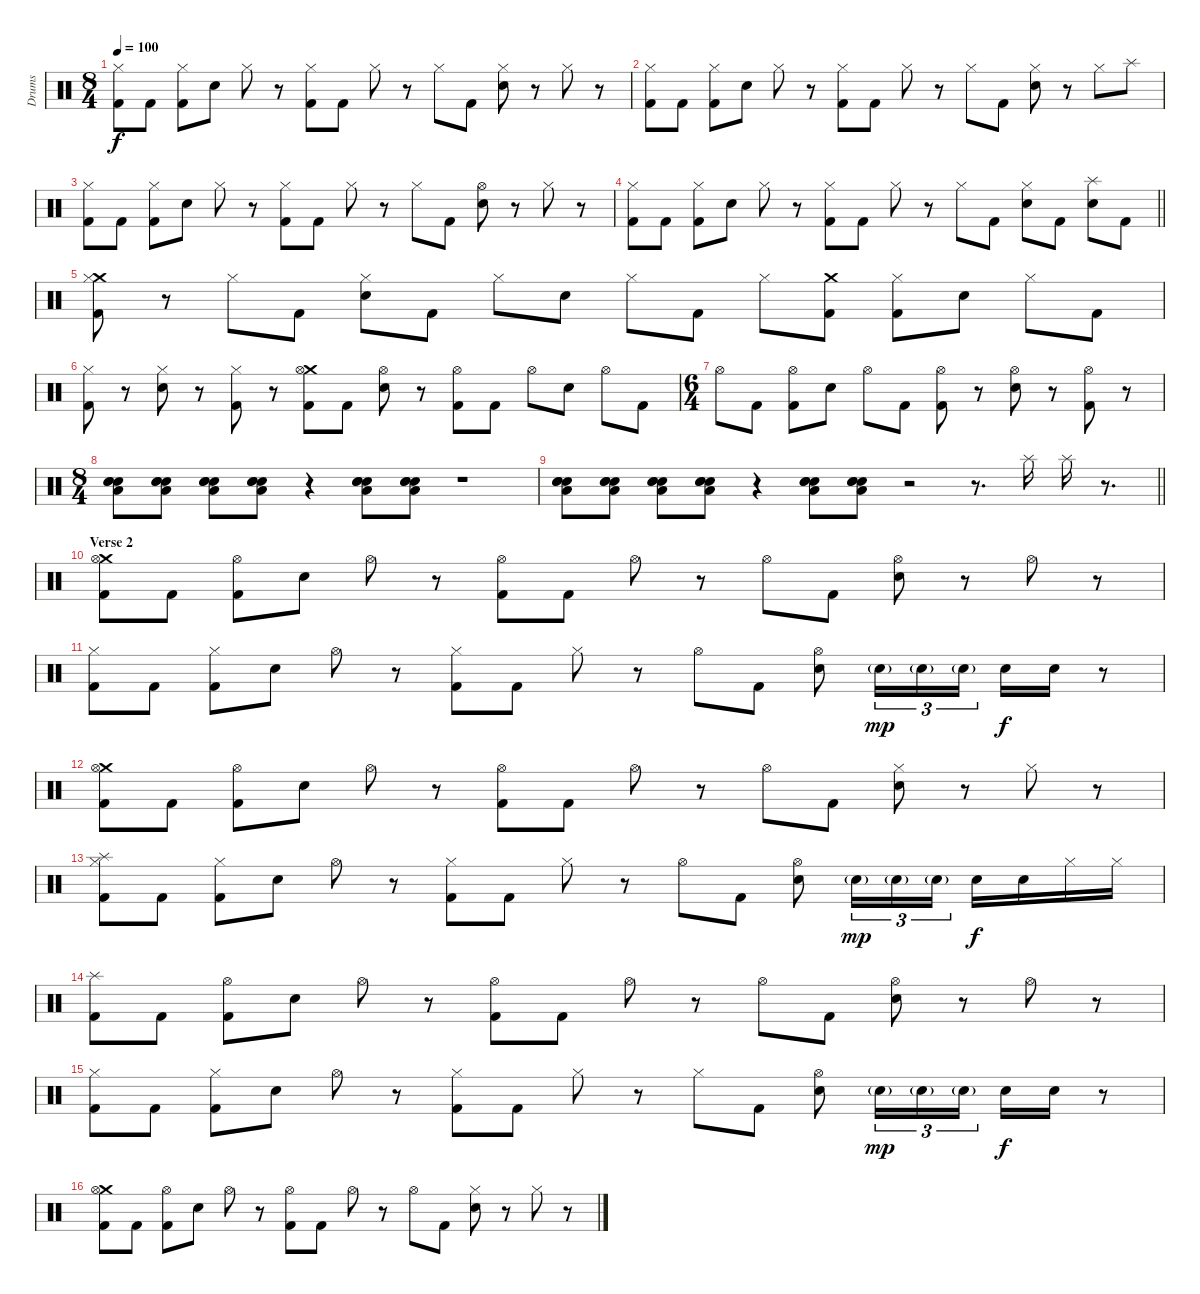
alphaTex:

\track ("Drums" "Drums") {instrument percussion}
\staff {score}
\articulation defaults
\ts (8 4)
\tempo 100
\clef neutral
\ks c
("Hi-Hat (closed)" "Kick (hit) 2").8{dy f} "Kick (hit) 2".8 ("Hi-Hat (closed)" "Kick (hit) 2").8 "Electric Snare (hit)".8 "Hi-Hat (closed)".8 r.8 ("Hi-Hat (closed)" "Kick (hit) 2").8 "Kick (hit) 2".8 "Hi-Hat (closed)".8 r.8 "Hi-Hat (closed)".8 "Kick (hit) 2".8 ("Hi-Hat (closed)" "Electric Snare (hit)").8 r.8 "Hi-Hat (closed)".8 r.8 |
("Hi-Hat (closed)" "Kick (hit) 2").8 "Kick (hit) 2".8 ("Hi-Hat (closed)" "Kick (hit) 2").8 "Electric Snare (hit)".8 "Hi-Hat (closed)".8 r.8 ("Hi-Hat (closed)" "Kick (hit) 2").8 "Kick (hit) 2".8 "Hi-Hat (closed)".8 r.8 "Hi-Hat (closed)".8 "Kick (hit) 2".8 ("Hi-Hat (closed)" "Electric Snare (hit)").8 r.8 "Hi-Hat (closed)".8 "Splash (hit)".8 |
("Hi-Hat (closed)" "Kick (hit) 2").8 "Kick (hit) 2".8 ("Hi-Hat (closed)" "Kick (hit) 2").8 "Electric Snare (hit)".8 "Hi-Hat (closed)".8 r.8 ("Hi-Hat (closed)" "Kick (hit) 2").8 "Kick (hit) 2".8 "Hi-Hat (closed)".8 r.8 "Hi-Hat (closed)".8 "Kick (hit) 2".8 ("Hi-Hat (open)" "Electric Snare (hit)").8 r.8 "Hi-Hat (closed)".8 r.8 |
\barLineRight lightlight
("Hi-Hat (closed)" "Kick (hit) 2").8 "Kick (hit) 2".8 ("Hi-Hat (closed)" "Kick (hit) 2").8 "Electric Snare (hit)".8 "Hi-Hat (closed)".8 r.8 ("Hi-Hat (closed)" "Kick (hit) 2").8 "Kick (hit) 2".8 "Hi-Hat (closed)".8 r.8 "Hi-Hat (closed)".8 "Kick (hit) 2".8 ("Hi-Hat (closed)" "Electric Snare (hit)").8 "Kick (hit) 2".8 ("Splash (hit)" "Electric Snare (hit)").8 "Kick (hit) 2".8 |
("Crash medium (hit)" "Hi-Hat (closed)" "Kick (hit) 2").8 r.8 "Hi-Hat (closed)".8 "Kick (hit) 2".8 ("Hi-Hat (closed)" "Electric Snare (hit)").8 "Kick (hit) 2".8 "Hi-Hat (closed)".8 "Electric Snare (hit)".8 "Hi-Hat (closed)".8 "Kick (hit) 2".8 "Hi-Hat (closed)".8 ("Crash medium (hit)" "Kick (hit) 2").8 ("Hi-Hat (closed)" "Kick (hit) 2").8 "Electric Snare (hit)".8 "Hi-Hat (closed)".8 "Kick (hit) 2".8 |
("Hi-Hat (closed)" "Kick (hit) 2").8 r.8 ("Hi-Hat (closed)" "Electric Snare (hit)").8 r.8 ("Hi-Hat (closed)" "Kick (hit) 2").8 r.8 ("Crash medium (hit)" "Hi-Hat (open)" "Kick (hit) 2").8 "Kick (hit) 2".8 ("Hi-Hat (open)" "Electric Snare (hit)").8 r.8 ("Hi-Hat (open)" "Kick (hit) 2").8 "Kick (hit) 2".8 "Hi-Hat (open)".8 "Electric Snare (hit)".8 "Hi-Hat (open)".8 "Kick (hit) 2".8 |
\ts (6 4)
"Hi-Hat (open)".8 "Kick (hit) 2".8 ("Hi-Hat (open)" "Kick (hit) 2").8 "Electric Snare (hit)".8 "Hi-Hat (open)".8 "Kick (hit) 2".8 ("Hi-Hat (open)" "Kick (hit) 2").8 r.8 ("Hi-Hat (open)" "Electric Snare (hit)").8 r.8 ("Hi-Hat (open)" "Kick (hit) 2").8 r.8 |
\ts (8 4)
("Snare (hit) 2" "Snare (hit) 2" "Snare (hit) 2" "Low Tom (hit)").8 ("Snare (hit) 2" "Snare (hit) 2" "Snare (hit) 2" "Low Tom (hit)").8 ("Snare (hit) 2" "Snare (hit) 2" "Snare (hit) 2" "Low Tom (hit)").8 ("Snare (hit) 2" "Snare (hit) 2" "Snare (hit) 2" "Low Tom (hit)").8 r.4 ("Snare (hit) 2" "Snare (hit) 2" "Snare (hit) 2" "Low Tom (hit)").8 ("Snare (hit) 2" "Snare (hit) 2" "Snare (hit) 2" "Low Tom (hit)").8 r.1 |
\barLineRight lightlight
("Snare (hit) 2" "Snare (hit) 2" "Snare (hit) 2" "Low Tom (hit)").8 ("Snare (hit) 2" "Snare (hit) 2" "Snare (hit) 2" "Low Tom (hit)").8 ("Snare (hit) 2" "Snare (hit) 2" "Snare (hit) 2" "Low Tom (hit)").8 ("Snare (hit) 2" "Snare (hit) 2" "Snare (hit) 2" "Low Tom (hit)").8 r.4 ("Snare (hit) 2" "Snare (hit) 2" "Snare (hit) 2" "Low Tom (hit)").8 ("Snare (hit) 2" "Snare (hit) 2" "Snare (hit) 2" "Low Tom (hit)").8 r.2 r.8{d} "Splash (hit)".16 "Splash (hit)".16 r.8{d} |
\section ("" "Verse 2")
("Crash medium (hit)" "Hi-Hat (open)" "Kick (hit) 2").8 "Kick (hit) 2".8 ("Hi-Hat (open)" "Kick (hit) 2").8 "Electric Snare (hit)".8 "Hi-Hat (open)".8 r.8 ("Hi-Hat (open)" "Kick (hit) 2").8 "Kick (hit) 2".8 "Hi-Hat (open)".8 r.8 "Hi-Hat (open)".8 "Kick (hit) 2".8 ("Hi-Hat (open)" "Electric Snare (hit)").8 r.8 "Hi-Hat (open)".8 r.8 |
("Hi-Hat (closed)" "Kick (hit) 2").8 "Kick (hit) 2".8 ("Hi-Hat (closed)" "Kick (hit) 2").8 "Electric Snare (hit)".8 "Hi-Hat (open)".8 r.8 ("Hi-Hat (closed)" "Kick (hit) 2").8 "Kick (hit) 2".8 "Hi-Hat (closed)".8 r.8 "Hi-Hat (open)".8 "Kick (hit) 2".8 ("Hi-Hat (open)" "Electric Snare (hit)").8 "Electric Snare (hit)"{g}.16{tu (3 2) dy mp} "Electric Snare (hit)"{g}.16{tu (3 2)} "Electric Snare (hit)"{g}.16{tu (3 2)} "Electric Snare (hit)".16{dy f} "Electric Snare (hit)".16 r.8 |
("Crash medium (hit)" "Hi-Hat (open)" "Kick (hit) 2").8 "Kick (hit) 2".8 ("Hi-Hat (open)" "Kick (hit) 2").8 "Electric Snare (hit)".8 "Hi-Hat (open)".8 r.8 ("Hi-Hat (open)" "Kick (hit) 2").8 "Kick (hit) 2".8 "Hi-Hat (open)".8 r.8 "Hi-Hat (open)".8 "Kick (hit) 2".8 ("Hi-Hat (closed)" "Electric Snare (hit)").8 r.8 "Hi-Hat (closed)".8 r.8 |
("Splash (hit)" "Hi-Hat (closed)" "Kick (hit) 2").8 "Kick (hit) 2".8 ("Hi-Hat (closed)" "Kick (hit) 2").8 "Electric Snare (hit)".8 "Hi-Hat (open)".8 r.8 ("Hi-Hat (closed)" "Kick (hit) 2").8 "Kick (hit) 2".8 "Hi-Hat (closed)".8 r.8 "Hi-Hat (open)".8 "Kick (hit) 2".8 ("Hi-Hat (open)" "Electric Snare (hit)").8 "Electric Snare (hit)"{g}.16{tu (3 2) dy mp} "Electric Snare (hit)"{g}.16{tu (3 2)} "Electric Snare (hit)"{g}.16{tu (3 2)} "Electric Snare (hit)".16{dy f} "Electric Snare (hit)".16 "Hi-Hat (closed)".16 "Hi-Hat (closed)".16 |
("Splash (hit)" "Kick (hit) 2").8 "Kick (hit) 2".8 ("Hi-Hat (open)" "Kick (hit) 2").8 "Electric Snare (hit)".8 "Hi-Hat (open)".8 r.8 ("Hi-Hat (open)" "Kick (hit) 2").8 "Kick (hit) 2".8 "Hi-Hat (open)".8 r.8 "Hi-Hat (open)".8 "Kick (hit) 2".8 ("Hi-Hat (open)" "Electric Snare (hit)").8 r.8 "Hi-Hat (open)".8 r.8 |
("Hi-Hat (closed)" "Kick (hit) 2").8 "Kick (hit) 2".8 ("Hi-Hat (closed)" "Kick (hit) 2").8 "Electric Snare (hit)".8 "Hi-Hat (open)".8 r.8 ("Hi-Hat (closed)" "Kick (hit) 2").8 "Kick (hit) 2".8 "Hi-Hat (closed)".8 r.8 "Hi-Hat (closed)".8 "Kick (hit) 2".8 ("Hi-Hat (open)" "Electric Snare (hit)").8 "Electric Snare (hit)"{g}.16{tu (3 2) dy mp} "Electric Snare (hit)"{g}.16{tu (3 2)} "Electric Snare (hit)"{g}.16{tu (3 2)} "Electric Snare (hit)".16{dy f} "Electric Snare (hit)".16 r.8 |
("Crash medium (hit)" "Hi-Hat (open)" "Kick (hit) 2").8 "Kick (hit) 2".8 ("Hi-Hat (open)" "Kick (hit) 2").8 "Electric Snare (hit)".8 "Hi-Hat (open)".8 r.8 ("Hi-Hat (open)" "Kick (hit) 2").8 "Kick (hit) 2".8 "Hi-Hat (open)".8 r.8 "Hi-Hat (open)".8 "Kick (hit) 2".8 ("Hi-Hat (closed)" "Electric Snare (hit)").8 r.8 "Hi-Hat (closed)".8 r.8
